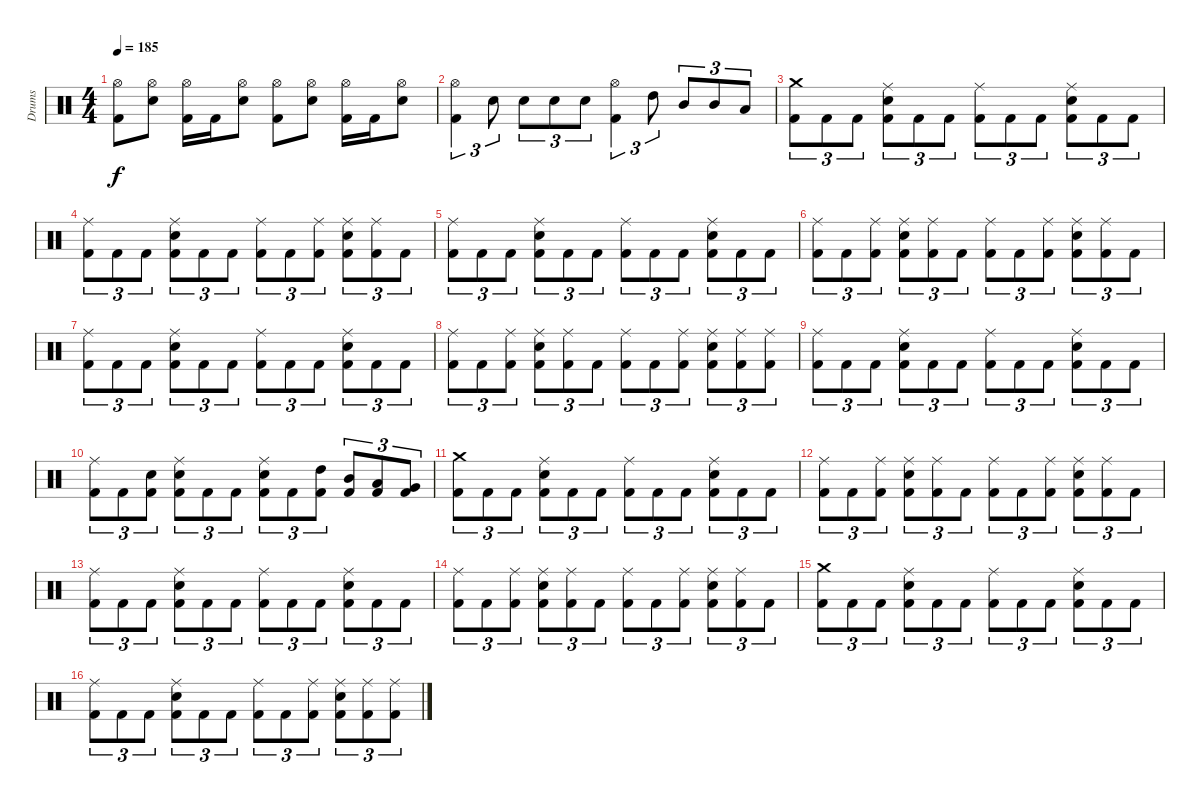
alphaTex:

\track ("Drums" "Drums") {instrument percussion}
\staff {score}
\articulation defaults
\ts (4 4)
\tempo 185
\clef neutral
\ks c
("Hi-Hat (open)" "Kick (hit) 2").8{dy f} ("Hi-Hat (open)" "Electric Snare (hit)").8 ("Hi-Hat (open)" "Kick (hit) 2").16 "Kick (hit) 2".16 ("Hi-Hat (open)" "Electric Snare (hit)").8 ("Hi-Hat (open)" "Kick (hit) 2").8 ("Hi-Hat (open)" "Electric Snare (hit)").8 ("Hi-Hat (open)" "Kick (hit) 2").16 "Kick (hit) 2".16 ("Hi-Hat (open)" "Electric Snare (hit)").8 |
("Hi-Hat (open)" "Kick (hit) 2").4{tu (3 2)} "Electric Snare (hit)".8{tu (3 2)} "Electric Snare (hit)".8{tu (3 2)} "Electric Snare (hit)".8{tu (3 2)} "Electric Snare (hit)".8{tu (3 2)} ("Hi-Hat (open)" "Kick (hit) 2").4{tu (3 2)} "High Tom (hit)".8{tu (3 2)} "Mid Tom (hit)".8{tu (3 2)} "Mid Tom (hit)".8{tu (3 2)} "Low Tom (hit)".8{tu (3 2)} |
("Crash medium (hit)" "Kick (hit) 2").8{tu (3 2)} "Kick (hit) 2".8{tu (3 2)} "Kick (hit) 2".8{tu (3 2)} ("Ride (middle)" "Electric Snare (hit)" "Kick (hit) 2").8{tu (3 2)} "Kick (hit) 2".8{tu (3 2)} "Kick (hit) 2".8{tu (3 2)} ("Ride (middle)" "Kick (hit) 2").8{tu (3 2)} "Kick (hit) 2".8{tu (3 2)} "Kick (hit) 2".8{tu (3 2)} ("Ride (middle)" "Electric Snare (hit)" "Kick (hit) 2").8{tu (3 2)} "Kick (hit) 2".8{tu (3 2)} "Kick (hit) 2".8{tu (3 2)} |
("Ride (middle)" "Kick (hit) 2").8{tu (3 2)} "Kick (hit) 2".8{tu (3 2)} "Kick (hit) 2".8{tu (3 2)} ("Ride (middle)" "Electric Snare (hit)" "Kick (hit) 2").8{tu (3 2)} "Kick (hit) 2".8{tu (3 2)} "Kick (hit) 2".8{tu (3 2)} ("Ride (middle)" "Kick (hit) 2").8{tu (3 2)} "Kick (hit) 2".8{tu (3 2)} ("Ride (middle)" "Kick (hit) 2").8{tu (3 2)} ("Ride (middle)" "Electric Snare (hit)" "Kick (hit) 2").8{tu (3 2)} ("Ride (middle)" "Kick (hit) 2").8{tu (3 2)} "Kick (hit) 2".8{tu (3 2)} |
("Ride (middle)" "Kick (hit) 2").8{tu (3 2)} "Kick (hit) 2".8{tu (3 2)} "Kick (hit) 2".8{tu (3 2)} ("Ride (middle)" "Electric Snare (hit)" "Kick (hit) 2").8{tu (3 2)} "Kick (hit) 2".8{tu (3 2)} "Kick (hit) 2".8{tu (3 2)} ("Ride (middle)" "Kick (hit) 2").8{tu (3 2)} "Kick (hit) 2".8{tu (3 2)} "Kick (hit) 2".8{tu (3 2)} ("Ride (middle)" "Electric Snare (hit)" "Kick (hit) 2").8{tu (3 2)} "Kick (hit) 2".8{tu (3 2)} "Kick (hit) 2".8{tu (3 2)} |
("Ride (middle)" "Kick (hit) 2").8{tu (3 2)} "Kick (hit) 2".8{tu (3 2)} ("Ride (middle)" "Kick (hit) 2").8{tu (3 2)} ("Ride (middle)" "Electric Snare (hit)" "Kick (hit) 2").8{tu (3 2)} ("Ride (middle)" "Kick (hit) 2").8{tu (3 2)} "Kick (hit) 2".8{tu (3 2)} ("Ride (middle)" "Kick (hit) 2").8{tu (3 2)} "Kick (hit) 2".8{tu (3 2)} ("Ride (middle)" "Kick (hit) 2").8{tu (3 2)} ("Ride (middle)" "Electric Snare (hit)" "Kick (hit) 2").8{tu (3 2)} ("Ride (middle)" "Kick (hit) 2").8{tu (3 2)} "Kick (hit) 2".8{tu (3 2)} |
("Ride (middle)" "Kick (hit) 2").8{tu (3 2)} "Kick (hit) 2".8{tu (3 2)} "Kick (hit) 2".8{tu (3 2)} ("Ride (middle)" "Electric Snare (hit)" "Kick (hit) 2").8{tu (3 2)} "Kick (hit) 2".8{tu (3 2)} "Kick (hit) 2".8{tu (3 2)} ("Ride (middle)" "Kick (hit) 2").8{tu (3 2)} "Kick (hit) 2".8{tu (3 2)} "Kick (hit) 2".8{tu (3 2)} ("Ride (middle)" "Electric Snare (hit)" "Kick (hit) 2").8{tu (3 2)} "Kick (hit) 2".8{tu (3 2)} "Kick (hit) 2".8{tu (3 2)} |
("Ride (middle)" "Kick (hit) 2").8{tu (3 2)} "Kick (hit) 2".8{tu (3 2)} ("Ride (middle)" "Kick (hit) 2").8{tu (3 2)} ("Ride (middle)" "Electric Snare (hit)" "Kick (hit) 2").8{tu (3 2)} ("Ride (middle)" "Kick (hit) 2").8{tu (3 2)} "Kick (hit) 2".8{tu (3 2)} ("Ride (middle)" "Kick (hit) 2").8{tu (3 2)} "Kick (hit) 2".8{tu (3 2)} ("Ride (middle)" "Kick (hit) 2").8{tu (3 2)} ("Ride (middle)" "Electric Snare (hit)" "Kick (hit) 2").8{tu (3 2)} ("Ride (middle)" "Kick (hit) 2").8{tu (3 2)} ("Ride (middle)" "Kick (hit) 2").8{tu (3 2)} |
("Ride (middle)" "Kick (hit) 2").8{tu (3 2)} "Kick (hit) 2".8{tu (3 2)} "Kick (hit) 2".8{tu (3 2)} ("Ride (middle)" "Electric Snare (hit)" "Kick (hit) 2").8{tu (3 2)} "Kick (hit) 2".8{tu (3 2)} "Kick (hit) 2".8{tu (3 2)} ("Ride (middle)" "Kick (hit) 2").8{tu (3 2)} "Kick (hit) 2".8{tu (3 2)} "Kick (hit) 2".8{tu (3 2)} ("Ride (middle)" "Electric Snare (hit)" "Kick (hit) 2").8{tu (3 2)} "Kick (hit) 2".8{tu (3 2)} "Kick (hit) 2".8{tu (3 2)} |
("Ride (middle)" "Kick (hit) 2").8{tu (3 2)} "Kick (hit) 2".8{tu (3 2)} ("Electric Snare (hit)" "Kick (hit) 2").8{tu (3 2)} ("Ride (middle)" "Electric Snare (hit)" "Kick (hit) 2").8{tu (3 2)} "Kick (hit) 2".8{tu (3 2)} "Kick (hit) 2".8{tu (3 2)} ("Ride (middle)" "Electric Snare (hit)" "Kick (hit) 2").8{tu (3 2)} "Kick (hit) 2".8{tu (3 2)} ("High Tom (hit)" "Kick (hit) 2").8{tu (3 2)} ("Mid Tom (hit)" "Kick (hit) 2").8{tu (3 2)} ("Low Tom (hit)" "Kick (hit) 2").8{tu (3 2)} ("Very Low Tom (hit)" "Kick (hit) 2").8{tu (3 2)} |
("Crash medium (hit)" "Kick (hit) 2").8{tu (3 2)} "Kick (hit) 2".8{tu (3 2)} "Kick (hit) 2".8{tu (3 2)} ("Ride (middle)" "Electric Snare (hit)" "Kick (hit) 2").8{tu (3 2)} "Kick (hit) 2".8{tu (3 2)} "Kick (hit) 2".8{tu (3 2)} ("Ride (middle)" "Kick (hit) 2").8{tu (3 2)} "Kick (hit) 2".8{tu (3 2)} "Kick (hit) 2".8{tu (3 2)} ("Ride (middle)" "Electric Snare (hit)" "Kick (hit) 2").8{tu (3 2)} "Kick (hit) 2".8{tu (3 2)} "Kick (hit) 2".8{tu (3 2)} |
("Ride (middle)" "Kick (hit) 2").8{tu (3 2)} "Kick (hit) 2".8{tu (3 2)} ("Ride (middle)" "Kick (hit) 2").8{tu (3 2)} ("Ride (middle)" "Electric Snare (hit)" "Kick (hit) 2").8{tu (3 2)} ("Ride (middle)" "Kick (hit) 2").8{tu (3 2)} "Kick (hit) 2".8{tu (3 2)} ("Ride (middle)" "Kick (hit) 2").8{tu (3 2)} "Kick (hit) 2".8{tu (3 2)} ("Ride (middle)" "Kick (hit) 2").8{tu (3 2)} ("Ride (middle)" "Electric Snare (hit)" "Kick (hit) 2").8{tu (3 2)} ("Ride (middle)" "Kick (hit) 2").8{tu (3 2)} "Kick (hit) 2".8{tu (3 2)} |
("Ride (middle)" "Kick (hit) 2").8{tu (3 2)} "Kick (hit) 2".8{tu (3 2)} "Kick (hit) 2".8{tu (3 2)} ("Ride (middle)" "Electric Snare (hit)" "Kick (hit) 2").8{tu (3 2)} "Kick (hit) 2".8{tu (3 2)} "Kick (hit) 2".8{tu (3 2)} ("Ride (middle)" "Kick (hit) 2").8{tu (3 2)} "Kick (hit) 2".8{tu (3 2)} "Kick (hit) 2".8{tu (3 2)} ("Ride (middle)" "Electric Snare (hit)" "Kick (hit) 2").8{tu (3 2)} "Kick (hit) 2".8{tu (3 2)} "Kick (hit) 2".8{tu (3 2)} |
("Ride (middle)" "Kick (hit) 2").8{tu (3 2)} "Kick (hit) 2".8{tu (3 2)} ("Ride (middle)" "Kick (hit) 2").8{tu (3 2)} ("Ride (middle)" "Electric Snare (hit)" "Kick (hit) 2").8{tu (3 2)} ("Ride (middle)" "Kick (hit) 2").8{tu (3 2)} "Kick (hit) 2".8{tu (3 2)} ("Ride (middle)" "Kick (hit) 2").8{tu (3 2)} "Kick (hit) 2".8{tu (3 2)} ("Ride (middle)" "Kick (hit) 2").8{tu (3 2)} ("Ride (middle)" "Electric Snare (hit)" "Kick (hit) 2").8{tu (3 2)} ("Ride (middle)" "Kick (hit) 2").8{tu (3 2)} "Kick (hit) 2".8{tu (3 2)} |
("Crash medium (hit)" "Kick (hit) 2").8{tu (3 2)} "Kick (hit) 2".8{tu (3 2)} "Kick (hit) 2".8{tu (3 2)} ("Ride (middle)" "Electric Snare (hit)" "Kick (hit) 2").8{tu (3 2)} "Kick (hit) 2".8{tu (3 2)} "Kick (hit) 2".8{tu (3 2)} ("Ride (middle)" "Kick (hit) 2").8{tu (3 2)} "Kick (hit) 2".8{tu (3 2)} "Kick (hit) 2".8{tu (3 2)} ("Ride (middle)" "Electric Snare (hit)" "Kick (hit) 2").8{tu (3 2)} "Kick (hit) 2".8{tu (3 2)} "Kick (hit) 2".8{tu (3 2)} |
("Ride (middle)" "Kick (hit) 2").8{tu (3 2)} "Kick (hit) 2".8{tu (3 2)} "Kick (hit) 2".8{tu (3 2)} ("Ride (middle)" "Electric Snare (hit)" "Kick (hit) 2").8{tu (3 2)} "Kick (hit) 2".8{tu (3 2)} "Kick (hit) 2".8{tu (3 2)} ("Ride (middle)" "Kick (hit) 2").8{tu (3 2)} "Kick (hit) 2".8{tu (3 2)} ("Ride (middle)" "Kick (hit) 2").8{tu (3 2)} ("Ride (middle)" "Electric Snare (hit)" "Kick (hit) 2").8{tu (3 2)} ("Ride (middle)" "Kick (hit) 2").8{tu (3 2)} ("Ride (middle)" "Kick (hit) 2").8{tu (3 2)}
